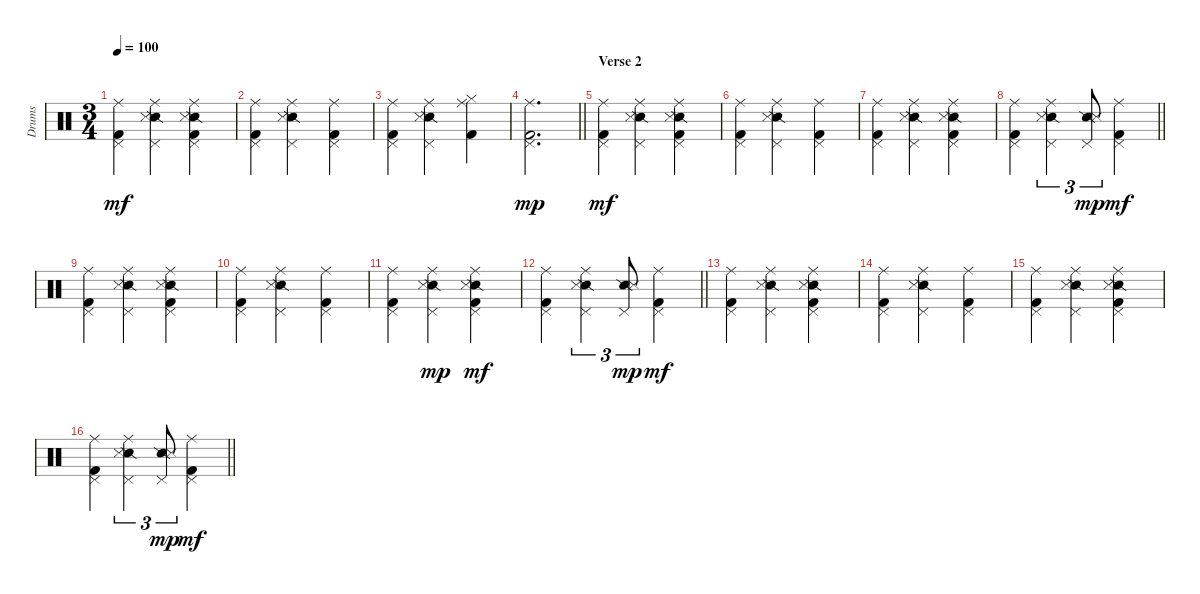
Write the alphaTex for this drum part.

\track ("Drums" "Drums") {instrument percussion}
\staff {score}
\articulation defaults
\ts (3 4)
\tempo 100
\clef neutral
\ks c
("Ride (middle)" "Pedal Hi-Hat (hit)" "Kick (hit) 2").4{dy mf} ("Ride (middle)" "Pedal Hi-Hat (hit)" "Snare (side stick) 2" "Snare (side stick) 3").4 ("Ride (middle)" "Pedal Hi-Hat (hit)" "Snare (side stick) 2" "Snare (side stick) 3" "Kick (hit) 2").4 |
("Ride (middle)" "Pedal Hi-Hat (hit)" "Kick (hit) 2").4 ("Ride (middle)" "Pedal Hi-Hat (hit)" "Snare (side stick) 2" "Snare (side stick) 3").4 ("Ride (middle)" "Pedal Hi-Hat (hit)" "Kick (hit) 2").4 |
("Ride (middle)" "Pedal Hi-Hat (hit)" "Kick (hit) 2").4 ("Ride (middle)" "Pedal Hi-Hat (hit)" "Snare (side stick) 2" "Snare (side stick) 3").4 ("Ride (middle)" "Hi-Hat (closed)" "Kick (hit) 2").4 |
\barLineRight lightlight
("Ride (middle)" "Pedal Hi-Hat (hit)" "Kick (hit) 2").2{d dy mp} |
\section ("" "Verse 2")
("Ride (middle)" "Pedal Hi-Hat (hit)" "Kick (hit) 2").4{dy mf} ("Ride (middle)" "Pedal Hi-Hat (hit)" "Snare (side stick) 2" "Snare (side stick) 3").4 ("Ride (middle)" "Pedal Hi-Hat (hit)" "Snare (side stick) 2" "Snare (side stick) 3" "Kick (hit) 2").4 |
("Ride (middle)" "Pedal Hi-Hat (hit)" "Kick (hit) 2").4 ("Ride (middle)" "Pedal Hi-Hat (hit)" "Snare (side stick) 2" "Snare (side stick) 3").4 ("Ride (middle)" "Pedal Hi-Hat (hit)" "Kick (hit) 2").4 |
("Ride (middle)" "Pedal Hi-Hat (hit)" "Kick (hit) 2").4 ("Ride (middle)" "Pedal Hi-Hat (hit)" "Snare (side stick) 2" "Snare (side stick) 3").4 ("Ride (middle)" "Pedal Hi-Hat (hit)" "Snare (side stick) 2" "Snare (side stick) 3" "Kick (hit) 2").4 |
\barLineRight lightlight
("Ride (middle)" "Pedal Hi-Hat (hit)" "Kick (hit) 2").4 ("Ride (middle)" "Pedal Hi-Hat (hit)" "Snare (side stick) 2" "Snare (side stick) 3").4{tu (3 2)} ("Pedal Hi-Hat (hit)" "Snare (side stick) 2" "Snare (side stick) 3").8{tu (3 2) dy mp} ("Ride (middle)" "Pedal Hi-Hat (hit)" "Kick (hit) 2").4{dy mf} |
("Ride (middle)" "Pedal Hi-Hat (hit)" "Kick (hit) 2").4 ("Ride (middle)" "Pedal Hi-Hat (hit)" "Snare (side stick) 2" "Snare (side stick) 3").4 ("Ride (middle)" "Pedal Hi-Hat (hit)" "Snare (side stick) 2" "Snare (side stick) 3" "Kick (hit) 2").4 |
("Ride (middle)" "Pedal Hi-Hat (hit)" "Kick (hit) 2").4 ("Ride (middle)" "Pedal Hi-Hat (hit)" "Snare (side stick) 2" "Snare (side stick) 3").4 ("Ride (middle)" "Pedal Hi-Hat (hit)" "Kick (hit) 2").4 |
("Ride (middle)" "Pedal Hi-Hat (hit)" "Kick (hit) 2").4 ("Ride (middle)" "Pedal Hi-Hat (hit)" "Snare (side stick) 2" "Snare (side stick) 3").4{dy mp} ("Ride (middle)" "Pedal Hi-Hat (hit)" "Snare (side stick) 2" "Snare (side stick) 3" "Kick (hit) 2").4{dy mf} |
\barLineRight lightlight
("Ride (middle)" "Pedal Hi-Hat (hit)" "Kick (hit) 2").4 ("Ride (middle)" "Pedal Hi-Hat (hit)" "Snare (side stick) 2" "Snare (side stick) 3").4{tu (3 2)} ("Pedal Hi-Hat (hit)" "Snare (side stick) 2" "Snare (side stick) 3").8{tu (3 2) dy mp} ("Ride (middle)" "Pedal Hi-Hat (hit)" "Kick (hit) 2").4{dy mf} |
("Ride (middle)" "Pedal Hi-Hat (hit)" "Kick (hit) 2").4 ("Ride (middle)" "Pedal Hi-Hat (hit)" "Snare (side stick) 2" "Snare (side stick) 3").4 ("Ride (middle)" "Pedal Hi-Hat (hit)" "Snare (side stick) 2" "Snare (side stick) 3" "Kick (hit) 2").4 |
("Ride (middle)" "Pedal Hi-Hat (hit)" "Kick (hit) 2").4 ("Ride (middle)" "Pedal Hi-Hat (hit)" "Snare (side stick) 2" "Snare (side stick) 3").4 ("Ride (middle)" "Pedal Hi-Hat (hit)" "Kick (hit) 2").4 |
("Ride (middle)" "Pedal Hi-Hat (hit)" "Kick (hit) 2").4 ("Ride (middle)" "Pedal Hi-Hat (hit)" "Snare (side stick) 2" "Snare (side stick) 3").4 ("Ride (middle)" "Pedal Hi-Hat (hit)" "Snare (side stick) 2" "Snare (side stick) 3" "Kick (hit) 2").4 |
\barLineRight lightlight
("Ride (middle)" "Pedal Hi-Hat (hit)" "Kick (hit) 2").4 ("Ride (middle)" "Pedal Hi-Hat (hit)" "Snare (side stick) 2" "Snare (side stick) 3").4{tu (3 2)} ("Pedal Hi-Hat (hit)" "Snare (side stick) 2" "Snare (side stick) 3").8{tu (3 2) dy mp} ("Ride (middle)" "Pedal Hi-Hat (hit)" "Kick (hit) 2").4{dy mf}
